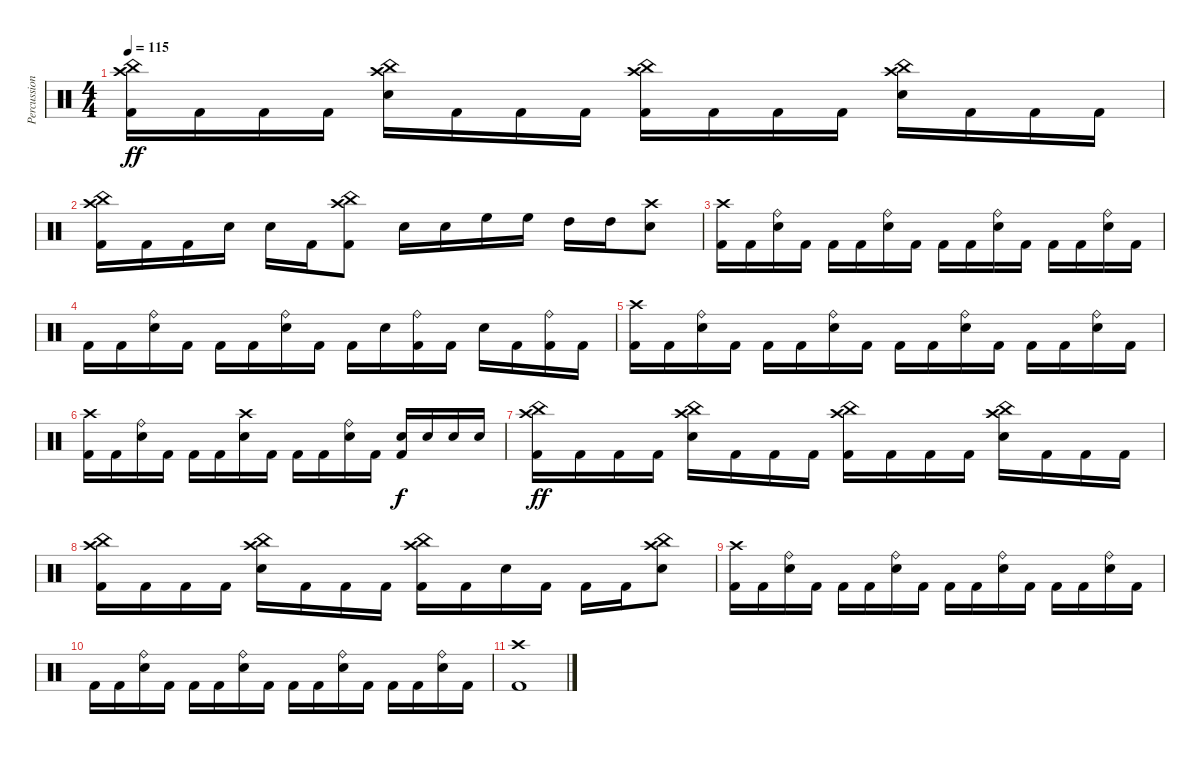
\track ("Percussion" "Percussion") {instrument percussion}
\staff {score}
\articulation defaults
\ts (4 4)
\tempo 115
\clef neutral
\ks c
("Kick (hit) 2" "Crash high (hit)" "China (hit)").16{dy ff} "Kick (hit) 2".16 "Kick (hit) 2".16 "Kick (hit) 2".16 ("Electric Snare (hit)" "Crash high (hit)" "China (hit)").16 "Kick (hit) 2".16 "Kick (hit) 2".16 "Kick (hit) 2".16 ("Kick (hit) 2" "Crash high (hit)" "China (hit)").16 "Kick (hit) 2".16 "Kick (hit) 2".16 "Kick (hit) 2".16 ("Electric Snare (hit)" "Crash high (hit)" "China (hit)").16 "Kick (hit) 2".16 "Kick (hit) 2".16 "Kick (hit) 2".16 |
("Kick (hit) 2" "Crash high (hit)" "China (hit)").16 "Kick (hit) 2".16 "Kick (hit) 2".16 "Electric Snare (hit)".16 "Electric Snare (hit)".16 "Kick (hit) 2".16 ("Kick (hit) 2" "Crash high (hit)" "China (hit)").8 "Electric Snare (hit)".16 "Electric Snare (hit)".16 "High Floor Tom (hit)".16 "High Floor Tom (hit)".16 "High Tom (hit)".16 "High Tom (hit)".16 ("Electric Snare (hit)" "Crash high (hit)").8 |
("Kick (hit) 2" "Crash high (hit)").16 "Kick (hit) 2".16 ("Electric Snare (hit)" "Ride (bell)").16 "Kick (hit) 2".16 "Kick (hit) 2".16 "Kick (hit) 2".16 ("Electric Snare (hit)" "Ride (bell)").16 "Kick (hit) 2".16 "Kick (hit) 2".16 "Kick (hit) 2".16 ("Electric Snare (hit)" "Ride (bell)").16 "Kick (hit) 2".16 "Kick (hit) 2".16 "Kick (hit) 2".16 ("Electric Snare (hit)" "Ride (bell)").16 "Kick (hit) 2".16 |
"Kick (hit) 2".16 "Kick (hit) 2".16 ("Electric Snare (hit)" "Ride (bell)").16 "Kick (hit) 2".16 "Kick (hit) 2".16 "Kick (hit) 2".16 ("Electric Snare (hit)" "Ride (bell)").16 "Kick (hit) 2".16 "Kick (hit) 2".16 "Electric Snare (hit)".16 ("Kick (hit) 2" "Ride (bell)").16 "Kick (hit) 2".16 "Electric Snare (hit)".16 "Kick (hit) 2".16 ("Kick (hit) 2" "Ride (bell)").16 "Kick (hit) 2".16 |
("Kick (hit) 2" "Crash high (hit)").16 "Kick (hit) 2".16 ("Electric Snare (hit)" "Ride (bell)").16 "Kick (hit) 2".16 "Kick (hit) 2".16 "Kick (hit) 2".16 ("Electric Snare (hit)" "Ride (bell)").16 "Kick (hit) 2".16 "Kick (hit) 2".16 "Kick (hit) 2".16 ("Electric Snare (hit)" "Ride (bell)").16 "Kick (hit) 2".16 "Kick (hit) 2".16 "Kick (hit) 2".16 ("Electric Snare (hit)" "Ride (bell)").16 "Kick (hit) 2".16 |
("Kick (hit) 2" "Crash high (hit)").16 "Kick (hit) 2".16 ("Electric Snare (hit)" "Ride (bell)").16 "Kick (hit) 2".16 "Kick (hit) 2".16 "Kick (hit) 2".16 ("Electric Snare (hit)" "Crash high (hit)").16 "Kick (hit) 2".16 "Kick (hit) 2".16 "Kick (hit) 2".16 ("Electric Snare (hit)" "Ride (bell)").16 "Kick (hit) 2".16 ("Electric Snare (hit)" "Kick (hit) 2").16{dy f} "Electric Snare (hit)".16 "Electric Snare (hit)".16 "Electric Snare (hit)".16 |
("Kick (hit) 2" "Crash high (hit)" "China (hit)").16{dy ff} "Kick (hit) 2".16 "Kick (hit) 2".16 "Kick (hit) 2".16 ("Electric Snare (hit)" "Crash high (hit)" "China (hit)").16 "Kick (hit) 2".16 "Kick (hit) 2".16 "Kick (hit) 2".16 ("Kick (hit) 2" "Crash high (hit)" "China (hit)").16 "Kick (hit) 2".16 "Kick (hit) 2".16 "Kick (hit) 2".16 ("Electric Snare (hit)" "Crash high (hit)" "China (hit)").16 "Kick (hit) 2".16 "Kick (hit) 2".16 "Kick (hit) 2".16 |
("Kick (hit) 2" "Crash high (hit)" "China (hit)").16 "Kick (hit) 2".16 "Kick (hit) 2".16 "Kick (hit) 2".16 ("Electric Snare (hit)" "Crash high (hit)" "China (hit)").16 "Kick (hit) 2".16 "Kick (hit) 2".16 "Kick (hit) 2".16 ("Kick (hit) 2" "Crash high (hit)" "China (hit)").16 "Kick (hit) 2".16 "Electric Snare (hit)".16 "Kick (hit) 2".16 "Kick (hit) 2".16 "Kick (hit) 2".16 ("Electric Snare (hit)" "Crash high (hit)" "China (hit)").8 |
("Kick (hit) 2" "Crash high (hit)").16 "Kick (hit) 2".16 ("Electric Snare (hit)" "Ride (bell)").16 "Kick (hit) 2".16 "Kick (hit) 2".16 "Kick (hit) 2".16 ("Electric Snare (hit)" "Ride (bell)").16 "Kick (hit) 2".16 "Kick (hit) 2".16 "Kick (hit) 2".16 ("Electric Snare (hit)" "Ride (bell)").16 "Kick (hit) 2".16 "Kick (hit) 2".16 "Kick (hit) 2".16 ("Electric Snare (hit)" "Ride (bell)").16 "Kick (hit) 2".16 |
"Kick (hit) 2".16 "Kick (hit) 2".16 ("Electric Snare (hit)" "Ride (bell)").16 "Kick (hit) 2".16 "Kick (hit) 2".16 "Kick (hit) 2".16 ("Electric Snare (hit)" "Ride (bell)").16 "Kick (hit) 2".16 "Kick (hit) 2".16 "Kick (hit) 2".16 ("Electric Snare (hit)" "Ride (bell)").16 "Kick (hit) 2".16 "Kick (hit) 2".16 "Kick (hit) 2".16 ("Electric Snare (hit)" "Ride (bell)").16 "Kick (hit) 2".16 |
("Kick (hit) 2" "Crash high (hit)").1
